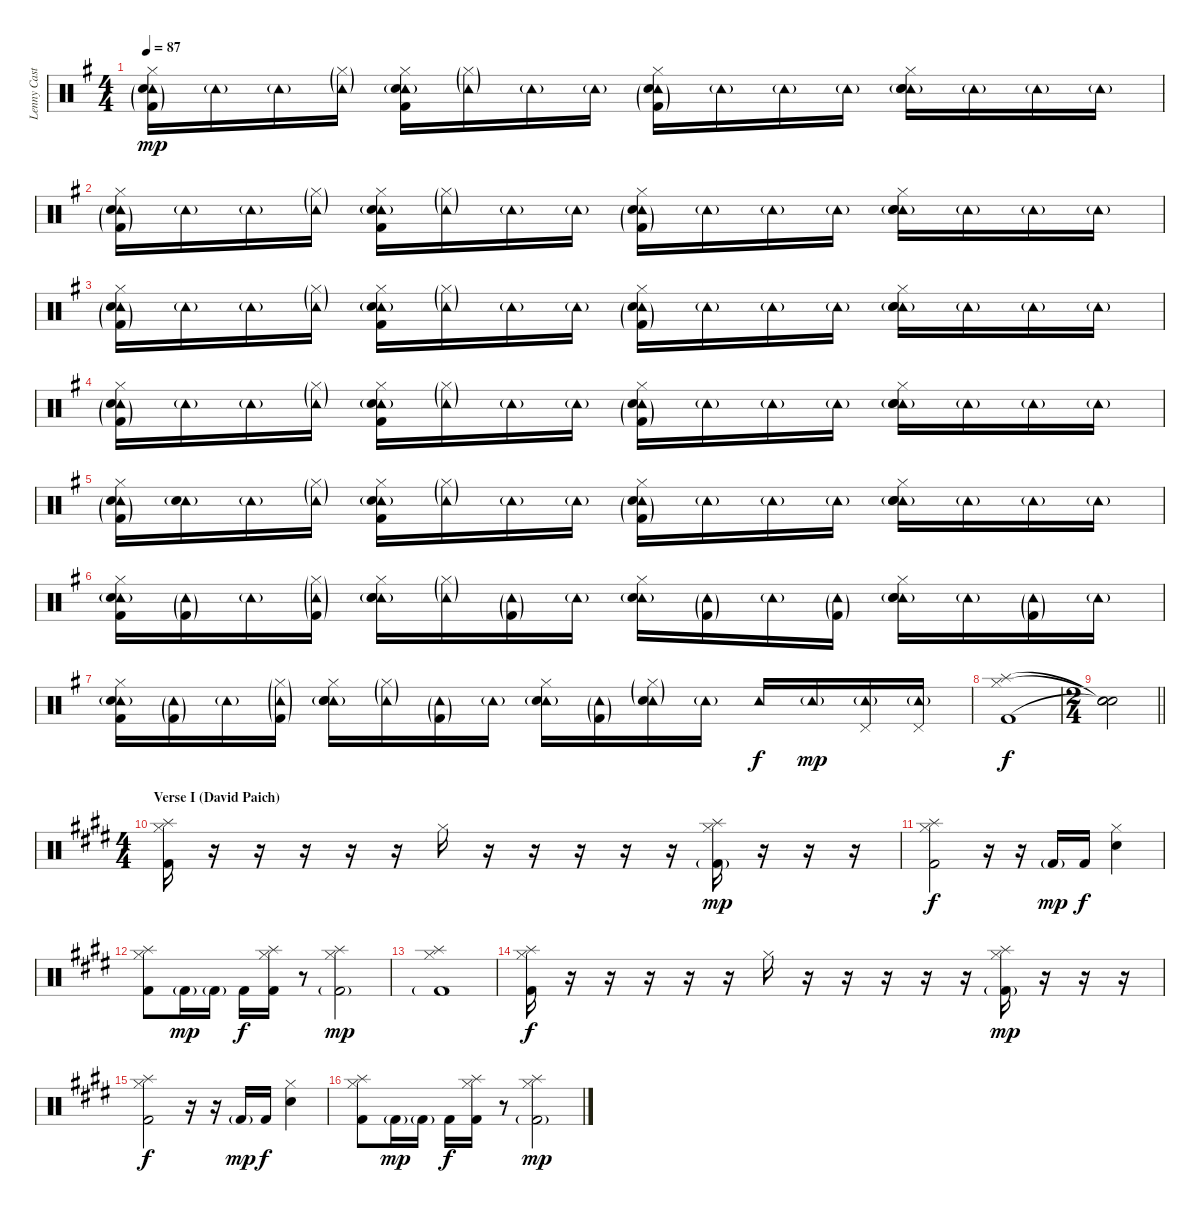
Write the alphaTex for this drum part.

\track ("Lenny Castro (Drums)" "Lenny Cast") {instrument percussion}
\staff {score}
\articulation defaults
\ts (4 4)
\tempo 87
\clef neutral
\ks g
("Hi-Hat (closed)" "Tambourine (hit)" "Electric Snare (hit)"{g} "Kick (hit) 2"{g}).16{dy mp} "Tambourine (hit)"{g}.16 "Tambourine (hit)"{g}.16 ("Hi-Hat (closed)"{g} "Tambourine (hit)"{g}).16 ("Hi-Hat (closed)" "Tambourine (hit)" "Snare (hit) 2"{g} "Kick (hit) 2").16 ("Hi-Hat (closed)"{g} "Tambourine (hit)"{g}).16 "Tambourine (hit)"{g}.16 "Tambourine (hit)"{g}.16 ("Hi-Hat (closed)" "Tambourine (hit)" "Electric Snare (hit)"{g} "Kick (hit) 2"{g}).16 "Tambourine (hit)"{g}.16 "Tambourine (hit)"{g}.16 "Tambourine (hit)"{g}.16 ("Hi-Hat (closed)" "Tambourine (hit)" "Snare (hit) 2"{g} "Electric Snare (hit)").16 "Tambourine (hit)"{g}.16 "Tambourine (hit)"{g}.16 "Tambourine (hit)"{g}.16 |
("Hi-Hat (closed)" "Tambourine (hit)" "Electric Snare (hit)"{g} "Kick (hit) 2"{g}).16 "Tambourine (hit)"{g}.16 "Tambourine (hit)"{g}.16 ("Hi-Hat (closed)"{g} "Tambourine (hit)"{g}).16 ("Hi-Hat (closed)" "Tambourine (hit)" "Snare (hit) 2"{g} "Kick (hit) 2").16 ("Hi-Hat (closed)"{g} "Tambourine (hit)"{g}).16 "Tambourine (hit)"{g}.16 "Tambourine (hit)"{g}.16 ("Hi-Hat (closed)" "Tambourine (hit)" "Electric Snare (hit)"{g} "Kick (hit) 2"{g}).16 "Tambourine (hit)"{g}.16 "Tambourine (hit)"{g}.16 "Tambourine (hit)"{g}.16 ("Hi-Hat (closed)" "Tambourine (hit)" "Snare (hit) 2"{g} "Electric Snare (hit)").16 "Tambourine (hit)"{g}.16 "Tambourine (hit)"{g}.16 "Tambourine (hit)"{g}.16 |
("Hi-Hat (closed)" "Tambourine (hit)" "Electric Snare (hit)"{g} "Kick (hit) 2"{g}).16 "Tambourine (hit)"{g}.16 "Tambourine (hit)"{g}.16 ("Hi-Hat (closed)"{g} "Tambourine (hit)"{g}).16 ("Hi-Hat (closed)" "Tambourine (hit)" "Snare (hit) 2"{g} "Kick (hit) 2").16 ("Hi-Hat (closed)"{g} "Tambourine (hit)"{g}).16 "Tambourine (hit)"{g}.16 "Tambourine (hit)"{g}.16 ("Hi-Hat (closed)" "Tambourine (hit)" "Electric Snare (hit)"{g} "Kick (hit) 2"{g}).16 "Tambourine (hit)"{g}.16 "Tambourine (hit)"{g}.16 "Tambourine (hit)"{g}.16 ("Hi-Hat (closed)" "Tambourine (hit)" "Snare (hit) 2"{g} "Electric Snare (hit)").16 "Tambourine (hit)"{g}.16 "Tambourine (hit)"{g}.16 "Tambourine (hit)"{g}.16 |
("Hi-Hat (closed)" "Tambourine (hit)" "Electric Snare (hit)"{g} "Kick (hit) 2"{g}).16 "Tambourine (hit)"{g}.16 "Tambourine (hit)"{g}.16 ("Hi-Hat (closed)"{g} "Tambourine (hit)"{g}).16 ("Hi-Hat (closed)" "Tambourine (hit)" "Snare (hit) 2"{g} "Kick (hit) 2").16 ("Hi-Hat (closed)"{g} "Tambourine (hit)"{g}).16 "Tambourine (hit)"{g}.16 "Tambourine (hit)"{g}.16 ("Hi-Hat (closed)" "Tambourine (hit)" "Electric Snare (hit)"{g} "Kick (hit) 2"{g}).16 "Tambourine (hit)"{g}.16 "Tambourine (hit)"{g}.16 "Tambourine (hit)"{g}.16 ("Hi-Hat (closed)" "Tambourine (hit)" "Snare (hit) 2"{g} "Electric Snare (hit)").16 "Tambourine (hit)"{g}.16 "Tambourine (hit)"{g}.16 "Tambourine (hit)"{g}.16 |
("Hi-Hat (closed)" "Tambourine (hit)" "Electric Snare (hit)"{g} "Kick (hit) 2"{g}).16 ("Tambourine (hit)"{g} "Electric Snare (hit)"{g}).16 "Tambourine (hit)"{g}.16 ("Hi-Hat (closed)"{g} "Tambourine (hit)"{g}).16 ("Hi-Hat (closed)" "Tambourine (hit)" "Snare (hit) 2"{g} "Kick (hit) 2").16 ("Hi-Hat (closed)"{g} "Tambourine (hit)"{g}).16 "Tambourine (hit)"{g}.16 "Tambourine (hit)"{g}.16 ("Hi-Hat (closed)" "Tambourine (hit)" "Electric Snare (hit)"{g} "Kick (hit) 2"{g}).16 "Tambourine (hit)"{g}.16 "Tambourine (hit)"{g}.16 "Tambourine (hit)"{g}.16 ("Hi-Hat (closed)" "Tambourine (hit)" "Snare (hit) 2"{g} "Electric Snare (hit)").16 "Tambourine (hit)"{g}.16 "Tambourine (hit)"{g}.16 "Tambourine (hit)"{g}.16 |
("Hi-Hat (closed)" "Tambourine (hit)" "Electric Snare (hit)"{g} "Kick (hit) 2").16 ("Tambourine (hit)"{g} "Kick (hit) 2"{g}).16 "Tambourine (hit)"{g}.16 ("Hi-Hat (closed)"{g} "Tambourine (hit)"{g} "Kick (hit) 2"{g}).16 ("Hi-Hat (closed)" "Tambourine (hit)" "Snare (hit) 2"{g} "Electric Snare (hit)").16 ("Hi-Hat (closed)"{g} "Tambourine (hit)"{g}).16 ("Tambourine (hit)"{g} "Kick (hit) 2"{g}).16 "Tambourine (hit)"{g}.16 ("Hi-Hat (closed)" "Tambourine (hit)" "Electric Snare (hit)"{g}).16 ("Tambourine (hit)"{g} "Kick (hit) 2"{g}).16 "Tambourine (hit)"{g}.16 ("Tambourine (hit)"{g} "Kick (hit) 2"{g}).16 ("Hi-Hat (closed)" "Tambourine (hit)" "Snare (hit) 2"{g} "Electric Snare (hit)").16 "Tambourine (hit)"{g}.16 ("Tambourine (hit)"{g} "Kick (hit) 2"{g}).16 "Tambourine (hit)"{g}.16 |
("Hi-Hat (closed)" "Tambourine (hit)" "Electric Snare (hit)"{g} "Kick (hit) 2").16 ("Tambourine (hit)"{g} "Kick (hit) 2"{g}).16 "Tambourine (hit)"{g}.16 ("Hi-Hat (closed)"{g} "Tambourine (hit)"{g} "Kick (hit) 2"{g}).16 ("Hi-Hat (closed)" "Tambourine (hit)" "Snare (hit) 2"{g} "Electric Snare (hit)").16 ("Hi-Hat (closed)"{g} "Tambourine (hit)"{g}).16 ("Tambourine (hit)"{g} "Kick (hit) 2"{g}).16 "Tambourine (hit)"{g}.16 ("Hi-Hat (closed)" "Tambourine (hit)" "Electric Snare (hit)"{g}).16 ("Tambourine (hit)"{g} "Kick (hit) 2"{g}).16 ("Hi-Hat (closed)"{g} "Tambourine (hit)"{g} "Electric Snare (hit)"{g}).16 "Tambourine (hit)"{g}.16 "Tambourine (hit)".16{dy f} "Tambourine (hit)"{g}.16{dy mp} ("Pedal Hi-Hat (hit)" "Tambourine (hit)"{g}).16 ("Pedal Hi-Hat (hit)" "Tambourine (hit)"{g}).16 |
("Splash (hit)" "Hi-Hat (closed)" "Kick (hit) 2").1{dy f} |
\ts (2 4)
\barLineRight lightlight
("Snare (hit)"{t} "Snare (hit)"{t} "Snare (hit)"{t}).2 |
\ts (4 4)
\section ("" "Verse I (David Paich)")
\ks e
("Splash (hit)" "Hi-Hat (closed)" "Kick (hit) 2").16 r.16 r.16 r.16 r.16 r.16 "Hi-Hat (closed)".16 r.16 r.16 r.16 r.16 r.16 ("Splash (hit)" "Hi-Hat (closed)" "Kick (hit) 2"{g}).16{dy mp} r.16 r.16 r.16 |
("Splash (hit)" "Hi-Hat (closed)" "Kick (hit) 2").2{dy f} r.16 r.16 "Kick (hit) 2"{g}.16{dy mp} "Kick (hit) 2".16{dy f} ("Hi-Hat (closed)" "Electric Snare (hit)").4 |
("Splash (hit)" "Hi-Hat (closed)" "Kick (hit) 2").8 "Kick (hit) 2"{g}.16{dy mp} "Kick (hit) 2"{g}.16 "Kick (hit) 2".16{dy f} ("Splash (hit)" "Hi-Hat (closed)" "Kick (hit) 2").16 r.8 ("Splash (hit)" "Hi-Hat (closed)" "Kick (hit) 2"{g}).2{dy mp} |
("Splash (hit)" "Hi-Hat (closed)" "Kick (hit) 2"{g}).1 |
("Splash (hit)" "Hi-Hat (closed)" "Kick (hit) 2").16{dy f} r.16 r.16 r.16 r.16 r.16 "Hi-Hat (closed)".16 r.16 r.16 r.16 r.16 r.16 ("Splash (hit)" "Hi-Hat (closed)" "Kick (hit) 2"{g}).16{dy mp} r.16 r.16 r.16 |
("Splash (hit)" "Hi-Hat (closed)" "Kick (hit) 2").2{dy f} r.16 r.16 "Kick (hit) 2"{g}.16{dy mp} "Kick (hit) 2".16{dy f} ("Hi-Hat (closed)" "Electric Snare (hit)").4 |
("Splash (hit)" "Hi-Hat (closed)" "Kick (hit) 2").8 "Kick (hit) 2"{g}.16{dy mp} "Kick (hit) 2"{g}.16 "Kick (hit) 2".16{dy f} ("Splash (hit)" "Hi-Hat (closed)" "Kick (hit) 2").16 r.8 ("Splash (hit)" "Hi-Hat (closed)" "Kick (hit) 2"{g}).2{dy mp}
